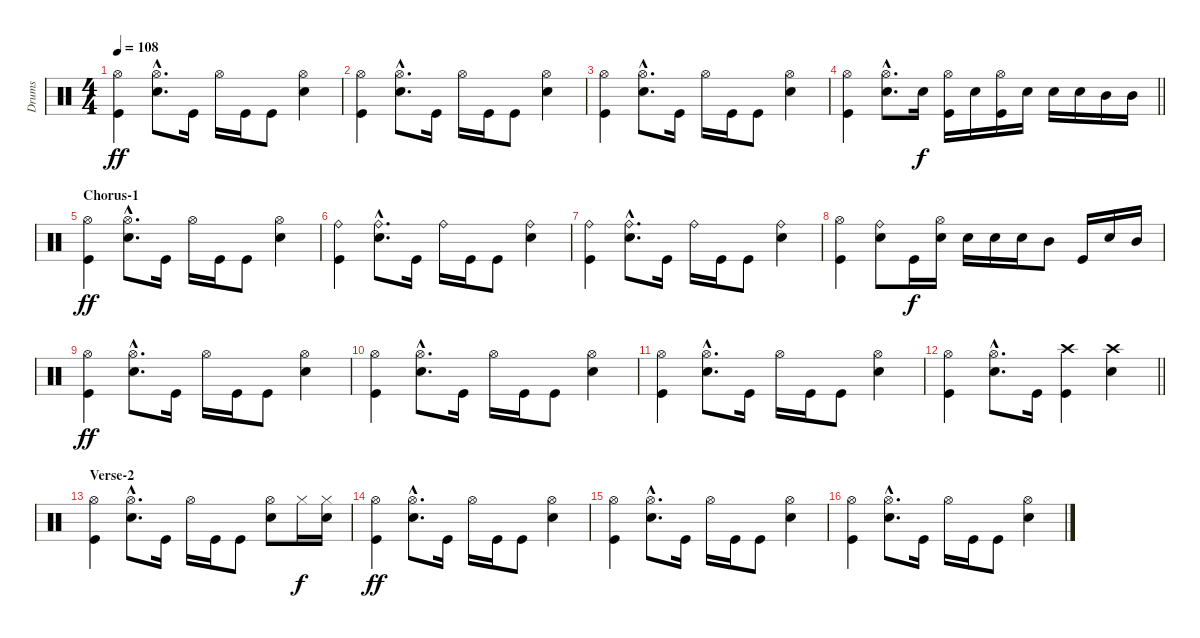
\track ("Drums" "Drums") {instrument percussion}
\staff {score}
\articulation defaults
\ts (4 4)
\tempo 108
\clef neutral
\ks c
("Hi-Hat (open)" "Kick (hit)").4{dy ff} ("Hi-Hat (open)"{hac} "Electric Snare (hit)"{hac}).8{d} "Kick (hit)".16 "Hi-Hat (open)".16 "Kick (hit)".16 "Kick (hit)".8 ("Hi-Hat (open)" "Electric Snare (hit)").4 |
("Hi-Hat (open)" "Kick (hit)").4 ("Hi-Hat (open)"{hac} "Electric Snare (hit)"{hac}).8{d} "Kick (hit)".16 "Hi-Hat (open)".16 "Kick (hit)".16 "Kick (hit)".8 ("Hi-Hat (open)" "Electric Snare (hit)").4 |
("Hi-Hat (open)" "Kick (hit)").4 ("Hi-Hat (open)"{hac} "Electric Snare (hit)"{hac}).8{d} "Kick (hit)".16 "Hi-Hat (open)".16 "Kick (hit)".16 "Kick (hit)".8 ("Hi-Hat (open)" "Electric Snare (hit)").4 |
\barLineRight lightlight
("Hi-Hat (open)" "Kick (hit)").4 ("Hi-Hat (open)"{hac} "Electric Snare (hit)"{hac}).8{d} "Electric Snare (hit)".16{dy f} ("Hi-Hat (open)" "Kick (hit)").16 "Electric Snare (hit)".16 ("Hi-Hat (open)" "Kick (hit)").16 "Electric Snare (hit)".16 "Electric Snare (hit)".16 "Electric Snare (hit)".16 "Mid Tom (hit)".16 "Mid Tom (hit)".16 |
\section ("" "Chorus-1")
("Hi-Hat (open)" "Kick (hit)").4{dy ff} ("Hi-Hat (open)"{hac} "Electric Snare (hit)"{hac}).8{d} "Kick (hit)".16 "Hi-Hat (open)".16 "Kick (hit)".16 "Kick (hit)".8 ("Hi-Hat (open)" "Electric Snare (hit)").4 |
("Ride (bell)" "Kick (hit)").4 ("Ride (bell)"{hac} "Electric Snare (hit)"{hac}).8{d} "Kick (hit)".16 "Ride (bell)".16 "Kick (hit)".16 "Kick (hit)".8 ("Ride (bell)" "Electric Snare (hit)").4 |
("Ride (bell)" "Kick (hit)").4 ("Ride (bell)"{hac} "Electric Snare (hit)"{hac}).8{d} "Kick (hit)".16 "Ride (bell)".16 "Kick (hit)".16 "Kick (hit)".8 ("Ride (bell)" "Electric Snare (hit)").4 |
("Hi-Hat (open)" "Kick (hit)").4 ("Ride (bell)" "Electric Snare (hit)").8 "Kick (hit)".16{dy f} ("Hi-Hat (open)" "Electric Snare (hit)").16 "Electric Snare (hit)".16 "Electric Snare (hit)".16 "Electric Snare (hit)".16 "Mid Tom (hit)".8 "Kick (hit)".16 "Electric Snare (hit)".16 "Mid Tom (hit)".16 |
("Hi-Hat (open)" "Kick (hit)").4{dy ff} ("Hi-Hat (open)"{hac} "Electric Snare (hit)"{hac}).8{d} "Kick (hit)".16 "Hi-Hat (open)".16 "Kick (hit)".16 "Kick (hit)".8 ("Hi-Hat (open)" "Electric Snare (hit)").4 |
("Hi-Hat (open)" "Kick (hit)").4 ("Hi-Hat (open)"{hac} "Electric Snare (hit)"{hac}).8{d} "Kick (hit)".16 "Hi-Hat (open)".16 "Kick (hit)".16 "Kick (hit)".8 ("Hi-Hat (open)" "Electric Snare (hit)").4 |
("Hi-Hat (open)" "Kick (hit)").4 ("Hi-Hat (open)"{hac} "Electric Snare (hit)"{hac}).8{d} "Kick (hit)".16 "Hi-Hat (open)".16 "Kick (hit)".16 "Kick (hit)".8 ("Hi-Hat (open)" "Electric Snare (hit)").4 |
\barLineRight lightlight
("Hi-Hat (open)" "Kick (hit)").4 ("Hi-Hat (open)"{hac} "Electric Snare (hit)"{hac}).8{d} "Kick (hit)".16 ("Crash high (hit)" "Kick (hit)").4 ("Crash high (hit)" "Electric Snare (hit)").4 |
\section ("" "Verse-2")
("Hi-Hat (open)" "Kick (hit)").4 ("Hi-Hat (open)"{hac} "Electric Snare (hit)"{hac}).8{d} "Kick (hit)".16 "Hi-Hat (open)".16 "Kick (hit)".16 "Kick (hit)".8 ("Hi-Hat (open)" "Electric Snare (hit)").8 "Hi-Hat (closed)".16{dy f} ("Hi-Hat (closed)" "Electric Snare (hit)").16 |
("Hi-Hat (open)" "Kick (hit)").4{dy ff} ("Hi-Hat (open)"{hac} "Electric Snare (hit)"{hac}).8{d} "Kick (hit)".16 "Hi-Hat (open)".16 "Kick (hit)".16 "Kick (hit)".8 ("Hi-Hat (open)" "Electric Snare (hit)").4 |
("Hi-Hat (open)" "Kick (hit)").4 ("Hi-Hat (open)"{hac} "Electric Snare (hit)"{hac}).8{d} "Kick (hit)".16 "Hi-Hat (open)".16 "Kick (hit)".16 "Kick (hit)".8 ("Hi-Hat (open)" "Electric Snare (hit)").4 |
("Hi-Hat (open)" "Kick (hit)").4 ("Hi-Hat (open)"{hac} "Electric Snare (hit)"{hac}).8{d} "Kick (hit)".16 "Hi-Hat (open)".16 "Kick (hit)".16 "Kick (hit)".8 ("Hi-Hat (open)" "Electric Snare (hit)").4
